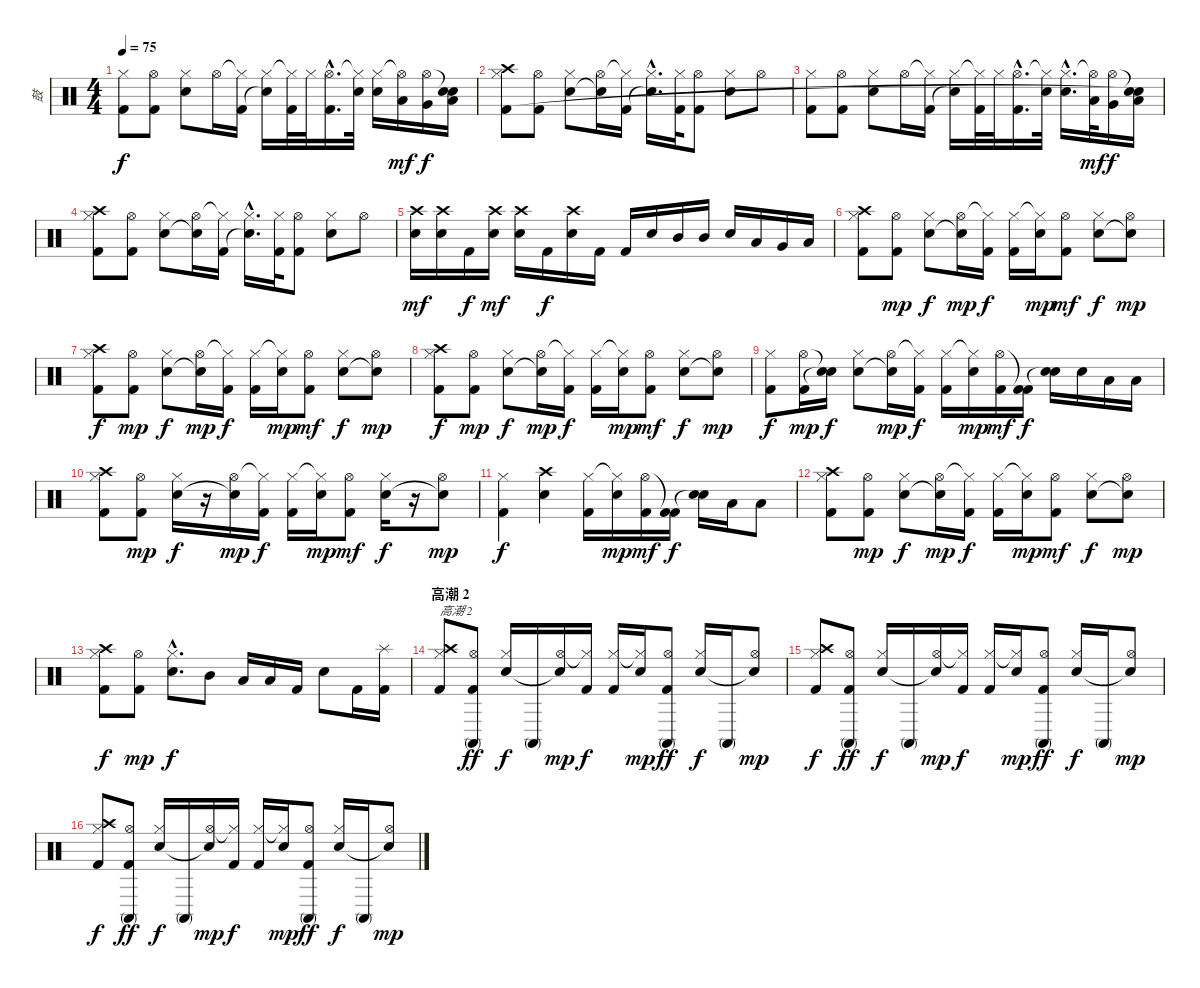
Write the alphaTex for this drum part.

\track ("鼓" "鼓") {instrument percussion}
\staff {score}
\articulation defaults
\ts (4 4)
\tempo 75
\clef neutral
\ks c
("Hi-Hat (closed)" "Kick (hit) 2").8{dy f} ("Hi-Hat (open)" "Kick (hit) 2").8 ("Hi-Hat (closed)" "Electric Snare (hit)").8 "Hi-Hat (open)".16 ("Hi-Hat (closed)"{t} "Kick (hit) 2").16 ("Hi-Hat (closed)" "Snare (hit)"{t}).16 ("Hi-Hat (closed)"{t} "Kick (hit) 2").32 "Hi-Hat (closed)".32 ("Hi-Hat (open)"{hac} "Kick (hit) 2"{hac}).16{d} ("Hi-Hat (closed)"{t} "Electric Snare (hit)").32 ("Hi-Hat (closed)" "Electric Snare (hit)").16 ("Hi-Hat (open)"{t} "Low Tom (hit)").16{dy mf} ("Hi-Hat (open)" "Very Low Tom (hit)").16{dy f} ("Snare (hit)"{t} "Low Floor Tom (hit)" "Snare (hit)"{t}).16 |
("Hi-Hat (closed)" "Crash high (hit)" "Kick (hit) 2").8 ("Hi-Hat (open)" "Kick (hit) 2").8 ("Hi-Hat (closed)" "Electric Snare (hit)").8 ("Hi-Hat (open)" "Snare (hit)"{t}).16 ("Hi-Hat (closed)"{t} "Kick (hit) 2").16 ("Hi-Hat (closed)"{hac} "Snare (hit)"{hac t}).16{d} ("Hi-Hat (closed)" "Kick (hit) 2").32 ("Hi-Hat (open)" "Kick (hit) 2").8 ("Hi-Hat (closed)" "Electric Snare (hit)").8 "Hi-Hat (open)".8 |
("Hi-Hat (closed)" "Kick (hit) 2").8 ("Hi-Hat (open)" "Kick (hit) 2").8 ("Hi-Hat (closed)" "Electric Snare (hit)").8 "Hi-Hat (open)".16 ("Hi-Hat (closed)"{t} "Kick (hit) 2").16 ("Hi-Hat (closed)" "Snare (hit)"{t}).16 ("Hi-Hat (closed)"{t} "Kick (hit) 2").32 "Hi-Hat (closed)".32 ("Hi-Hat (open)"{hac} "Kick (hit) 2"{hac}).16{d} ("Hi-Hat (closed)"{t} "Electric Snare (hit)").32 ("Hi-Hat (closed)"{hac} "Electric Snare (hit)"{hac}).16{d} ("Hi-Hat (open)"{t} "Low Tom (hit)").32{dy mf} ("Hi-Hat (open)" "Very Low Tom (hit)").16{dy f} ("Snare (hit)"{t} "Low Floor Tom (hit)" "Snare (hit)"{t}).16 |
("Hi-Hat (closed)" "Crash high (hit)" "Kick (hit) 2").8 ("Hi-Hat (open)" "Kick (hit) 2").8 ("Hi-Hat (closed)" "Electric Snare (hit)").8 ("Hi-Hat (open)" "Snare (hit)"{t}).16 ("Hi-Hat (closed)"{t} "Kick (hit) 2").16 ("Hi-Hat (closed)"{hac} "Snare (hit)"{hac t}).16{d} ("Hi-Hat (closed)" "Kick (hit) 2").32 ("Hi-Hat (open)" "Kick (hit) 2").8 ("Hi-Hat (closed)" "Electric Snare (hit)").8 "Hi-Hat (open)".8 |
("Crash high (hit)" "Electric Snare (hit)").16{dy mf} ("Crash high (hit)" "Electric Snare (hit)").16 "Kick (hit) 2".16{dy f} ("Crash high (hit)" "Electric Snare (hit)").16{dy mf} ("Crash high (hit)" "Electric Snare (hit)").16 "Kick (hit) 2".16{dy f} ("Crash high (hit)" "Electric Snare (hit)").16 "Kick (hit) 2".16 "Kick (hit) 2".16 "Electric Snare (hit)".16 "Mid Tom (hit)".16 "Mid Tom (hit)".16 "Electric Snare (hit)".16 "Low Tom (hit)".16 "Very Low Tom (hit)".16 "Low Floor Tom (hit)".16 |
\section ("" "")
("Hi-Hat (closed)" "Crash high (hit)" "Kick (hit) 2").8 ("Hi-Hat (open)" "Kick (hit) 2").8{dy mp} ("Hi-Hat (closed)" "Electric Snare (hit)").8{dy f} ("Hi-Hat (open)" "Snare (hit)"{t}).16{dy mp} ("Hi-Hat (closed)"{t} "Kick (hit) 2").16{dy f} ("Hi-Hat (closed)" "Kick (hit) 2").16 ("Hi-Hat (closed)"{t} "Electric Snare (hit)").16{dy mp} ("Hi-Hat (open)" "Kick (hit) 2").8{dy mf} ("Hi-Hat (closed)" "Electric Snare (hit)").8{dy f} ("Hi-Hat (open)" "Snare (hit)"{t}).8{dy mp} |
("Hi-Hat (closed)" "Crash high (hit)" "Kick (hit) 2").8{dy f} ("Hi-Hat (open)" "Kick (hit) 2").8{dy mp} ("Hi-Hat (closed)" "Electric Snare (hit)").8{dy f} ("Hi-Hat (open)" "Snare (hit)"{t}).16{dy mp} ("Hi-Hat (closed)"{t} "Kick (hit) 2").16{dy f} ("Hi-Hat (closed)" "Kick (hit) 2").16 ("Hi-Hat (closed)"{t} "Electric Snare (hit)").16{dy mp} ("Hi-Hat (open)" "Kick (hit) 2").8{dy mf} ("Hi-Hat (closed)" "Electric Snare (hit)").8{dy f} ("Hi-Hat (open)" "Snare (hit)"{t}).8{dy mp} |
("Hi-Hat (closed)" "Crash high (hit)" "Kick (hit) 2").8{dy f} ("Hi-Hat (open)" "Kick (hit) 2").8{dy mp} ("Hi-Hat (closed)" "Electric Snare (hit)").8{dy f} ("Hi-Hat (open)" "Snare (hit)"{t}).16{dy mp} ("Hi-Hat (closed)"{t} "Kick (hit) 2").16{dy f} ("Hi-Hat (closed)" "Kick (hit) 2").16 ("Hi-Hat (closed)"{t} "Electric Snare (hit)").16{dy mp} ("Hi-Hat (open)" "Kick (hit) 2").8{dy mf} ("Hi-Hat (closed)" "Electric Snare (hit)").8{dy f} ("Hi-Hat (open)" "Snare (hit)"{t}).8{dy mp} |
("Hi-Hat (closed)" "Kick (hit) 2").8{dy f} ("Hi-Hat (open)" "Kick (hit) 2").16{dy mp} ("Snare (hit)"{t} "Snare (hit)"{t}).16{dy f} ("Hi-Hat (closed)" "Electric Snare (hit)").8 ("Hi-Hat (open)" "Snare (hit)"{t}).16{dy mp} ("Hi-Hat (closed)"{t} "Kick (hit) 2").16{dy f} ("Hi-Hat (closed)" "Kick (hit) 2").16 ("Hi-Hat (closed)"{t} "Electric Snare (hit)").16{dy mp} ("Hi-Hat (open)" "Kick (hit) 2").16{dy mf} ("Kick (hit) 2"{t} "Kick (hit) 2").16{dy f} ("Electric Snare (hit)" "Snare (hit)"{t}).16 "Electric Snare (hit)".16 "Low Tom (hit)".16 "Low Tom (hit)".16 |
("Hi-Hat (closed)" "Crash high (hit)" "Kick (hit) 2").8 ("Hi-Hat (open)" "Kick (hit) 2").8{dy mp} ("Hi-Hat (closed)" "Electric Snare (hit)").16{dy f} r.16 ("Hi-Hat (open)" "Snare (hit)"{t}).16{dy mp} ("Hi-Hat (closed)"{t} "Kick (hit) 2").16{dy f} ("Hi-Hat (closed)" "Kick (hit) 2").16 ("Hi-Hat (closed)"{t} "Electric Snare (hit)").16{dy mp} ("Hi-Hat (open)" "Kick (hit) 2").8{dy mf} ("Hi-Hat (closed)" "Electric Snare (hit)").16{dy f} r.16 ("Hi-Hat (open)" "Snare (hit)"{t}).8{dy mp} |
("Hi-Hat (closed)" "Kick (hit) 2").4{dy f} ("Crash high (hit)" "Electric Snare (hit)").4 ("Hi-Hat (closed)" "Kick (hit) 2").16 ("Hi-Hat (closed)"{t} "Electric Snare (hit)").16{dy mp} ("Hi-Hat (open)" "Kick (hit) 2").16{dy mf} ("Kick (hit) 2"{t} "Kick (hit) 2").16{dy f} ("Electric Snare (hit)" "Snare (hit)"{t}).16 "Low Tom (hit)".16 "Low Tom (hit)".8 |
("Hi-Hat (closed)" "Crash high (hit)" "Kick (hit) 2").8 ("Hi-Hat (open)" "Kick (hit) 2").8{dy mp} ("Hi-Hat (closed)" "Electric Snare (hit)").8{dy f} ("Hi-Hat (open)" "Snare (hit)"{t}).16{dy mp} ("Hi-Hat (closed)"{t} "Kick (hit) 2").16{dy f} ("Hi-Hat (closed)" "Kick (hit) 2").16 ("Hi-Hat (closed)"{t} "Electric Snare (hit)").16{dy mp} ("Hi-Hat (open)" "Kick (hit) 2").8{dy mf} ("Hi-Hat (closed)" "Electric Snare (hit)").8{dy f} ("Hi-Hat (open)" "Snare (hit)"{t}).8{dy mp} |
("Hi-Hat (closed)" "Crash high (hit)" "Kick (hit) 2").8{dy f} ("Hi-Hat (open)" "Kick (hit) 2").8{dy mp} ("Hi-Hat (closed)"{hac} "Electric Snare (hit)"{hac}).8{d dy f} "Mid Tom (hit)".8 "Low Tom (hit)".16 "Low Tom (hit)".16 "Kick (hit) 2".16 "Electric Snare (hit)".8 "Kick (hit) 2".16 ("Splash (hit)" "Kick (hit) 2").16 |
\section ("" "高潮 2")
("Hi-Hat (closed)" "Crash high (hit)" "Kick (hit) 2").8{txt "高潮 2"} ("Hi-Hat (open)" "Conga high (mute)" "Kick (hit) 2").8{dy ff} ("Hi-Hat (closed)" "Electric Snare (hit)").16{dy f} "Conga high (mute)".16 ("Hi-Hat (open)" "Snare (hit)"{t}).16{dy mp} ("Hi-Hat (closed)"{t} "Kick (hit) 2").16{dy f} ("Hi-Hat (closed)" "Kick (hit) 2").16 ("Hi-Hat (closed)"{t} "Electric Snare (hit)").16{dy mp} ("Hi-Hat (open)" "Conga high (mute)" "Kick (hit) 2").8{dy ff} ("Hi-Hat (closed)" "Electric Snare (hit)").16{dy f} "Conga high (mute)".16 ("Hi-Hat (open)" "Snare (hit)"{t}).8{dy mp} |
("Hi-Hat (closed)" "Crash high (hit)" "Kick (hit) 2").8{dy f} ("Hi-Hat (open)" "Conga high (mute)" "Kick (hit) 2").8{dy ff} ("Hi-Hat (closed)" "Electric Snare (hit)").16{dy f} "Conga high (mute)".16 ("Hi-Hat (open)" "Snare (hit)"{t}).16{dy mp} ("Hi-Hat (closed)"{t} "Kick (hit) 2").16{dy f} ("Hi-Hat (closed)" "Kick (hit) 2").16 ("Hi-Hat (closed)"{t} "Electric Snare (hit)").16{dy mp} ("Hi-Hat (open)" "Conga high (mute)" "Kick (hit) 2").8{dy ff} ("Hi-Hat (closed)" "Electric Snare (hit)").16{dy f} "Conga high (mute)".16 ("Hi-Hat (open)" "Snare (hit)"{t}).8{dy mp} |
("Hi-Hat (closed)" "Crash high (hit)" "Kick (hit) 2").8{dy f} ("Hi-Hat (open)" "Conga high (mute)" "Kick (hit) 2").8{dy ff} ("Hi-Hat (closed)" "Electric Snare (hit)").16{dy f} "Conga high (mute)".16 ("Hi-Hat (open)" "Snare (hit)"{t}).16{dy mp} ("Hi-Hat (closed)"{t} "Kick (hit) 2").16{dy f} ("Hi-Hat (closed)" "Kick (hit) 2").16 ("Hi-Hat (closed)"{t} "Electric Snare (hit)").16{dy mp} ("Hi-Hat (open)" "Conga high (mute)" "Kick (hit) 2").8{dy ff} ("Hi-Hat (closed)" "Electric Snare (hit)").16{dy f} "Conga high (mute)".16 ("Hi-Hat (open)" "Snare (hit)"{t}).8{dy mp}
